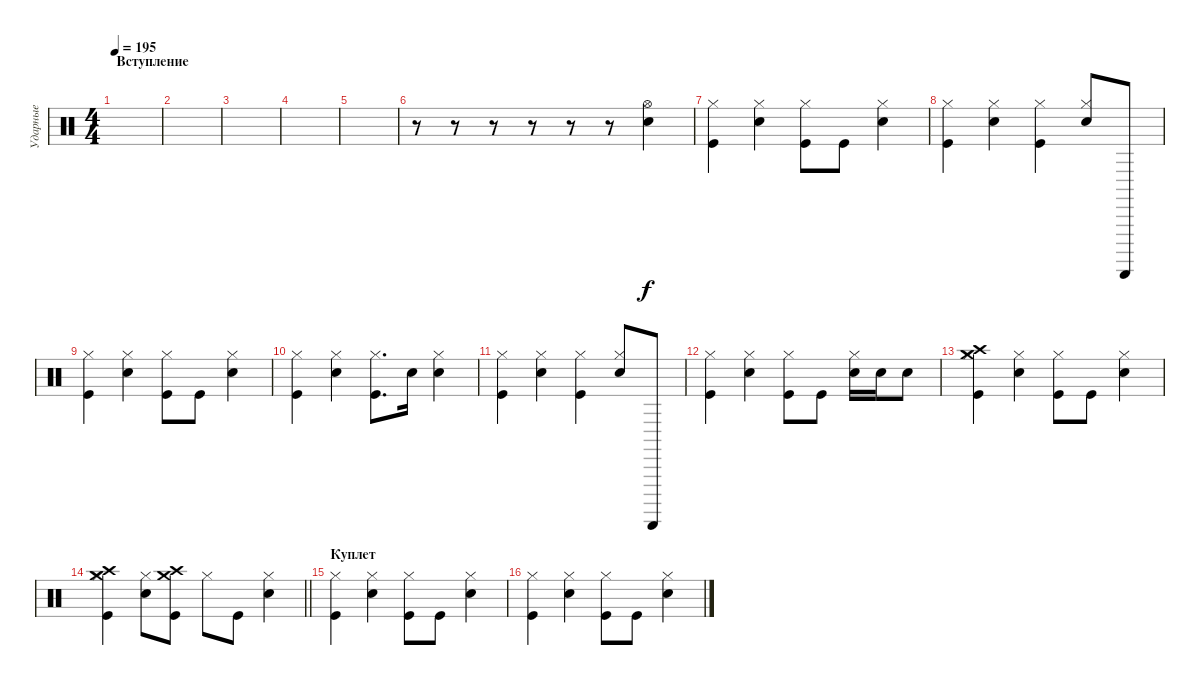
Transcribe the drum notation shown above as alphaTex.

\track ("Ударные" "Ударные") {instrument percussion}
\staff {score}
\articulation defaults
\ts (4 4)
\section ("" "Вступление")
\tempo 195
\clef neutral
\ks c
|
|
|
|
|
r.8 r.8 r.8 r.8 r.8 r.8 ("Hi-Hat (open)" "Electric Snare (hit)").4 |
("Hi-Hat (closed)" "Kick (hit)").4 ("Electric Snare (hit)" "Hi-Hat (closed)").4 ("Hi-Hat (closed)" "Kick (hit)").8 "Kick (hit)".8 ("Hi-Hat (closed)" "Electric Snare (hit)").4 |
("Hi-Hat (closed)" "Kick (hit)").4 ("Electric Snare (hit)" "Hi-Hat (closed)").4 ("Hi-Hat (closed)" "Kick (hit)").4 ("Electric Snare (hit)" "Hi-Hat (closed)").8 "Guiro (scrap-return)".8 |
("Kick (hit)" "Hi-Hat (closed)").4 ("Electric Snare (hit)" "Hi-Hat (closed)").4 ("Hi-Hat (closed)" "Kick (hit)").8 "Kick (hit)".8 ("Electric Snare (hit)" "Hi-Hat (closed)").4 |
("Hi-Hat (closed)" "Kick (hit)").4 ("Electric Snare (hit)" "Hi-Hat (closed)").4 ("Kick (hit)" "Hi-Hat (closed)").8{d} "Electric Snare (hit)".16 ("Hi-Hat (closed)" "Electric Snare (hit)").4 |
("Kick (hit)" "Hi-Hat (closed)").4 ("Electric Snare (hit)" "Hi-Hat (closed)").4 ("Hi-Hat (closed)" "Kick (hit)").4 ("Electric Snare (hit)" "Hi-Hat (closed)").8 "Guiro (scrap-return)".8 |
("Hi-Hat (closed)" "Kick (hit)").4 ("Electric Snare (hit)" "Hi-Hat (closed)").4 ("Kick (hit)" "Hi-Hat (closed)").8 "Kick (hit)".8 ("Electric Snare (hit)" "Hi-Hat (closed)").16 "Electric Snare (hit)".16 "Electric Snare (hit)".8 |
("Crash medium (hit)" "Hi-Hat (closed)" "Kick (hit)" "Crash high (hit)").4 ("Electric Snare (hit)" "Hi-Hat (closed)").4 ("Kick (hit)" "Hi-Hat (closed)").8 "Kick (hit)".8 ("Hi-Hat (closed)" "Electric Snare (hit)").4 |
\barLineRight lightlight
("Hi-Hat (closed)" "Kick (hit)" "Crash medium (hit)" "Crash high (hit)").4 ("Electric Snare (hit)" "Hi-Hat (closed)").8 ("Kick (hit)" "Crash high (hit)" "Crash medium (hit)").8 "Hi-Hat (closed)".8 "Kick (hit)".8 ("Hi-Hat (closed)" "Electric Snare (hit)").4 |
\section ("" "Куплет")
("Hi-Hat (closed)" "Kick (hit)").4 ("Hi-Hat (closed)" "Electric Snare (hit)").4 ("Hi-Hat (closed)" "Kick (hit)").8 "Kick (hit)".8 ("Hi-Hat (closed)" "Electric Snare (hit)").4 |
("Hi-Hat (closed)" "Kick (hit)").4 ("Hi-Hat (closed)" "Electric Snare (hit)").4 ("Hi-Hat (closed)" "Kick (hit)").8 "Kick (hit)".8 ("Hi-Hat (closed)" "Electric Snare (hit)").4
